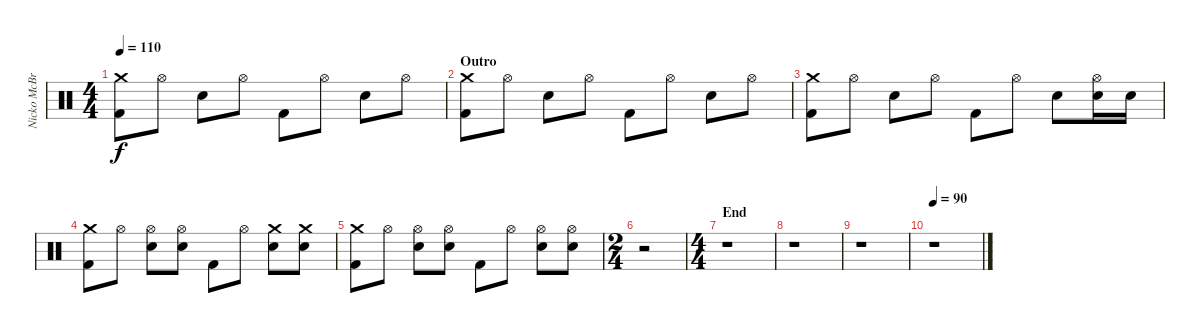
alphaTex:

\track ("Nicko McBrain" "Nicko McBr") {instrument percussion}
\staff {score}
\articulation defaults
\ts (4 4)
\tempo 110
\clef neutral
\ks c
("Crash medium (hit)" "Kick (hit) 2").8{dy f} "Hi-Hat (open)".8 "Snare (hit) 2".8 "Hi-Hat (open)".8 "Kick (hit) 2".8 "Hi-Hat (open)".8 "Snare (hit) 2".8 "Hi-Hat (open)".8 |
\section ("" "Outro")
("Crash medium (hit)" "Kick (hit) 2").8 "Hi-Hat (open)".8 "Snare (hit) 2".8 "Hi-Hat (open)".8 "Kick (hit) 2".8 "Hi-Hat (open)".8 "Snare (hit) 2".8 "Hi-Hat (open)".8 |
("Crash medium (hit)" "Kick (hit) 2").8 "Hi-Hat (open)".8 "Snare (hit) 2".8 "Hi-Hat (open)".8 "Kick (hit) 2".8 "Hi-Hat (open)".8 "Snare (hit) 2".8 ("Snare (hit) 2" "Hi-Hat (open)").16 "Snare (hit) 2".16 |
("Crash medium (hit)" "Kick (hit) 2").8 "Hi-Hat (open)".8 ("Snare (hit) 2" "Hi-Hat (open)").8 ("Snare (hit) 2" "Hi-Hat (open)").8 "Kick (hit) 2".8 "Hi-Hat (open)".8 ("Snare (hit) 2" "Crash medium (hit)").8 ("Snare (hit) 2" "Crash medium (hit)").8 |
("Crash medium (hit)" "Kick (hit) 2").8 "Hi-Hat (open)".8 ("Snare (hit) 2" "Hi-Hat (open)").8 ("Snare (hit) 2" "Hi-Hat (open)").8 "Kick (hit) 2".8 "Hi-Hat (open)".8 ("Snare (hit) 2" "Hi-Hat (open)").8 ("Snare (hit) 2" "Hi-Hat (open)").8 |
\ts (2 4)
r.2 |
\ts (4 4)
\section ("" "End")
r.1 |
r.1 |
r.1 |
\tempo 90
r.1
